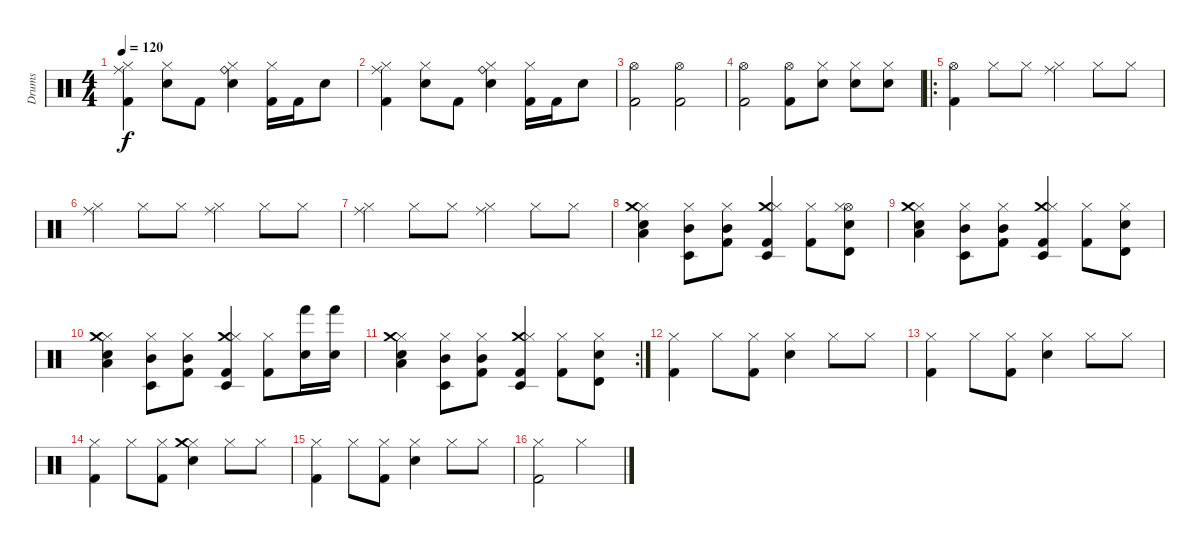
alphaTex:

\track ("Drums" "Drums") {instrument percussion}
\staff {score}
\articulation defaults
\ts (4 4)
\tempo 120
\clef neutral
\ks c
("Hi-Hat (closed)" "Ride (middle)" "Kick (hit) 2").4{dy f} ("Hi-Hat (closed)" "Electric Snare (hit)").8 "Kick (hit) 2".8 ("Hi-Hat (closed)" "Ride (bell)" "Electric Snare (hit)").4 ("Hi-Hat (closed)" "Kick (hit) 2").16 "Kick (hit) 2".16 "Electric Snare (hit)".8 |
("Hi-Hat (closed)" "Ride (middle)" "Kick (hit) 2").4 ("Hi-Hat (closed)" "Electric Snare (hit)").8 "Kick (hit) 2".8 ("Hi-Hat (closed)" "Ride (bell)" "Electric Snare (hit)").4 ("Hi-Hat (closed)" "Kick (hit) 2").16 "Kick (hit) 2".16 "Electric Snare (hit)".8 |
("Hi-Hat (open)" "Kick (hit) 2").2 ("Hi-Hat (open)" "Kick (hit) 2").2 |
("Hi-Hat (open)" "Kick (hit) 2").2 ("Hi-Hat (open)" "Kick (hit) 2").8 ("Hi-Hat (closed)" "Snare (hit) 2").8 ("Hi-Hat (closed)" "Snare (hit) 2").8 ("Hi-Hat (closed)" "Snare (hit) 2").8 |
\ro
("Hi-Hat (open)" "Kick (hit) 2").4 "Hi-Hat (closed)".8 "Hi-Hat (closed)".8 ("Hi-Hat (closed)" "Ride (middle)").4 "Hi-Hat (closed)".8 "Hi-Hat (closed)".8 |
("Hi-Hat (closed)" "Ride (middle)").4 "Hi-Hat (closed)".8 "Hi-Hat (closed)".8 ("Hi-Hat (closed)" "Ride (middle)").4 "Hi-Hat (closed)".8 "Hi-Hat (closed)".8 |
("Hi-Hat (closed)" "Ride (middle)").4 "Hi-Hat (closed)".8 "Hi-Hat (closed)".8 ("Hi-Hat (closed)" "Ride (middle)").4 "Hi-Hat (closed)".8 "Hi-Hat (closed)".8 |
("Hi-Hat (closed)" "Low Tom (hit)" "Crash medium (hit)" "Electric Snare (hit)").4 ("Timbale low (hit)" "Hi-Hat (closed)" "Mid Tom (hit)").8 ("Kick (hit) 2" "Hi-Hat (closed)" "Mid Tom (hit)").8 ("Crash medium (hit)" "Hi-Hat (closed)" "Kick (hit) 2" "Timbale low (hit)").4 ("Hi-Hat (closed)" "Kick (hit) 2").8 ("Hi-Hat (open)" "Hi-Hat (closed)" "Electric Snare (hit)" "Timbale high (hit)").8 |
("Hi-Hat (closed)" "Low Tom (hit)" "Crash medium (hit)" "Electric Snare (hit)").4 ("Timbale low (hit)" "Hi-Hat (closed)" "Mid Tom (hit)").8 ("Kick (hit) 2" "Hi-Hat (closed)" "Mid Tom (hit)").8 ("Crash medium (hit)" "Hi-Hat (closed)" "Kick (hit) 2" "Timbale low (hit)").4 ("Hi-Hat (closed)" "Kick (hit) 2").8 ("Timbale high (hit)" "Hi-Hat (closed)" "Electric Snare (hit)").8 |
("Hi-Hat (closed)" "Low Tom (hit)" "Crash medium (hit)" "Snare (hit) 2").4 ("Timbale low (hit)" "Hi-Hat (closed)" "Mid Tom (hit)").8 ("Kick (hit) 2" "Hi-Hat (closed)" "Mid Tom (hit)").8 ("Crash medium (hit)" "Hi-Hat (closed)" "Kick (hit) 2" "Timbale low (hit)").4 ("Hi-Hat (closed)" "Kick (hit) 2").8 ("Hand (hit)" "Electric Snare (hit)").16 ("Hand (hit)" "Electric Snare (hit)").16 |
\rc 2
("Hi-Hat (closed)" "Low Tom (hit)" "Crash medium (hit)" "Snare (hit) 2").4 ("Timbale low (hit)" "Hi-Hat (closed)" "Mid Tom (hit)").8 ("Kick (hit) 2" "Hi-Hat (closed)" "Mid Tom (hit)").8 ("Crash medium (hit)" "Hi-Hat (closed)" "Kick (hit) 2" "Timbale low (hit)").4 ("Hi-Hat (closed)" "Kick (hit) 2").8 ("Timbale high (hit)" "Hi-Hat (closed)" "Electric Snare (hit)").8 |
("Hi-Hat (closed)" "Kick (hit) 2").4 "Hi-Hat (closed)".8 ("Hi-Hat (closed)" "Kick (hit) 2").8 ("Hi-Hat (closed)" "Snare (hit) 2").4 "Hi-Hat (closed)".8 "Hi-Hat (closed)".8 |
("Hi-Hat (closed)" "Kick (hit) 2").4 "Hi-Hat (closed)".8 ("Hi-Hat (closed)" "Kick (hit) 2").8 ("Hi-Hat (closed)" "Snare (hit) 2").4 "Hi-Hat (closed)".8 "Hi-Hat (closed)".8 |
("Hi-Hat (closed)" "Kick (hit) 2").4 "Hi-Hat (closed)".8 ("Hi-Hat (closed)" "Kick (hit) 2").8 ("Hi-Hat (closed)" "Snare (hit) 2" "Crash medium (hit)").4 "Hi-Hat (closed)".8 "Hi-Hat (closed)".8 |
("Hi-Hat (closed)" "Kick (hit) 2").4 "Hi-Hat (closed)".8 ("Hi-Hat (closed)" "Kick (hit) 2").8 ("Hi-Hat (closed)" "Snare (hit) 2").4 "Hi-Hat (closed)".8 "Hi-Hat (closed)".8 |
("Hi-Hat (closed)" "Kick (hit) 2").2 "Hi-Hat (closed)".2
